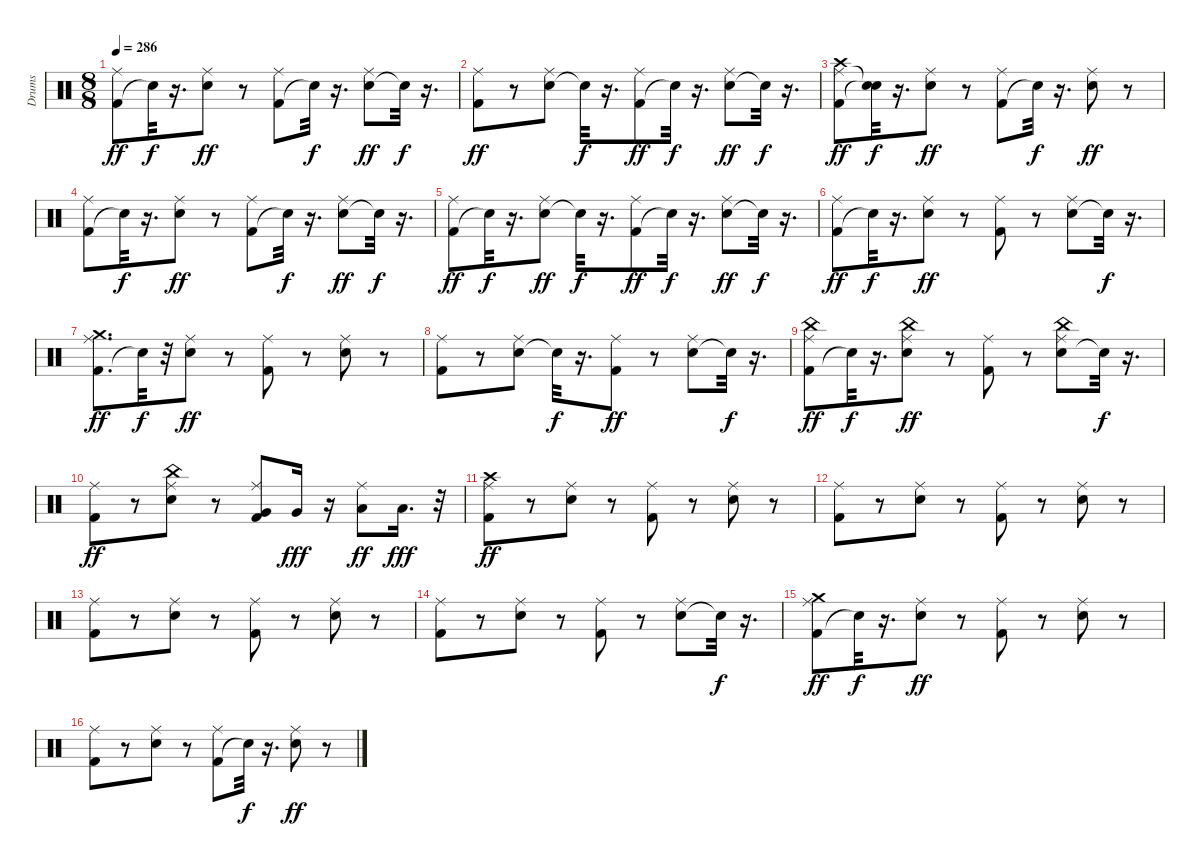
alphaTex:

\track ("Drums" "Drums") {instrument percussion}
\staff {score}
\articulation defaults
\ts (8 8)
\tempo 286
\clef neutral
\ks c
("Kick (hit) 2" "Ride (middle)").8{dy ff} "Snare (hit)"{t}.32{dy f} r.16{d} ("Snare (hit) 2" "Ride (middle)").8{dy ff} r.8 ("Kick (hit) 2" "Ride (middle)").8 "Snare (hit)"{t}.32{dy f} r.16{d} ("Snare (hit) 2" "Ride (middle)").8{dy ff} "Snare (hit)"{t}.32{dy f} r.16{d} |
("Kick (hit) 2" "Ride (middle)").8{dy ff} r.8 ("Snare (hit) 2" "Ride (middle)").8 "Snare (hit)"{t}.32{dy f} r.16{d} ("Kick (hit) 2" "Ride (middle)").8{dy ff} "Snare (hit)"{t}.32{dy f} r.16{d} ("Snare (hit) 2" "Ride (middle)").8{dy ff} "Snare (hit)"{t}.32{dy f} r.16{d} |
("Kick (hit) 2" "Ride (middle)" "Crash high (hit)").8{dy ff} ("Snare (hit)"{t} "Snare (hit)"{t}).32{dy f} r.16{d} ("Snare (hit) 2" "Ride (middle)").8{dy ff} r.8 ("Kick (hit) 2" "Ride (middle)").8 "Snare (hit)"{t}.32{dy f} r.16{d} ("Snare (hit) 2" "Ride (middle)").8{dy ff} r.8 |
("Kick (hit) 2" "Ride (middle)").8 "Snare (hit)"{t}.32{dy f} r.16{d} ("Snare (hit) 2" "Ride (middle)").8{dy ff} r.8 ("Kick (hit) 2" "Ride (middle)").8 "Snare (hit)"{t}.32{dy f} r.16{d} ("Snare (hit) 2" "Ride (middle)").8{dy ff} "Snare (hit)"{t}.32{dy f} r.16{d} |
("Kick (hit) 2" "Ride (middle)").8{dy ff} "Snare (hit)"{t}.32{dy f} r.16{d} ("Snare (hit) 2" "Ride (middle)").8{dy ff} "Snare (hit)"{t}.32{dy f} r.16{d} ("Kick (hit) 2" "Ride (middle)").8{dy ff} "Snare (hit)"{t}.32{dy f} r.16{d} ("Snare (hit) 2" "Ride (middle)").8{dy ff} "Snare (hit)"{t}.32{dy f} r.16{d} |
("Kick (hit) 2" "Ride (middle)").8{dy ff} "Snare (hit)"{t}.32{dy f} r.16{d} ("Snare (hit) 2" "Ride (middle)").8{dy ff} r.8 ("Kick (hit) 2" "Ride (middle)").8 r.8 ("Snare (hit) 2" "Ride (middle)").8 "Snare (hit)"{t}.32{dy f} r.16{d} |
("Kick (hit) 2" "Ride (middle)" "Crash medium (hit)").8{d dy ff} "Snare (hit)"{t}.32{dy f} r.32 ("Snare (hit) 2" "Ride (middle)").8{dy ff} r.8 ("Kick (hit) 2" "Ride (middle)").8 r.8 ("Snare (hit) 2" "Ride (middle)").8 r.8 |
("Kick (hit) 2" "Ride (middle)").8 r.8 ("Snare (hit) 2" "Ride (middle)").8 "Snare (hit)"{t}.32{dy f} r.16{d} ("Kick (hit) 2" "Ride (middle)").8{dy ff} r.8 ("Snare (hit) 2" "Ride (middle)").8 "Snare (hit)"{t}.32{dy f} r.16{d} |
("Kick (hit) 2" "Ride (middle)" "China (hit)").8{dy ff} "Snare (hit)"{t}.32{dy f} r.16{d} ("Snare (hit) 2" "Ride (middle)" "China (hit)").8{dy ff} r.8 ("Kick (hit) 2" "Ride (middle)").8 r.8 ("Snare (hit) 2" "Ride (middle)" "China (hit)").8 "Snare (hit)"{t}.32{dy f} r.16{d} |
("Kick (hit) 2" "Ride (middle)").8{dy ff} r.8 ("Snare (hit) 2" "Ride (middle)" "China (hit)").8 r.8 ("Kick (hit) 2" "Very Low Tom (hit)" "Ride (middle)").8 "Very Low Tom (hit)".16{dy fff} r.16 ("Low Floor Tom (hit)" "Ride (middle)").8{dy ff} "Low Floor Tom (hit)".16{d dy fff} r.32 |
("Kick (hit) 2" "Ride (middle)" "Crash high (hit)").8{dy ff} r.8 ("Snare (hit) 2" "Ride (middle)").8 r.8 ("Kick (hit) 2" "Ride (middle)").8 r.8 ("Snare (hit) 2" "Ride (middle)").8 r.8 |
("Kick (hit) 2" "Ride (middle)").8 r.8 ("Snare (hit) 2" "Ride (middle)").8 r.8 ("Kick (hit) 2" "Ride (middle)").8 r.8 ("Snare (hit) 2" "Ride (middle)").8 r.8 |
("Kick (hit) 2" "Ride (middle)").8 r.8 ("Snare (hit) 2" "Ride (middle)").8 r.8 ("Kick (hit) 2" "Ride (middle)").8 r.8 ("Snare (hit) 2" "Ride (middle)").8 r.8 |
("Kick (hit) 2" "Ride (middle)").8 r.8 ("Snare (hit) 2" "Ride (middle)").8 r.8 ("Kick (hit) 2" "Ride (middle)").8 r.8 ("Snare (hit) 2" "Ride (middle)").8 "Snare (hit)"{t}.32{dy f} r.16{d} |
("Kick (hit) 2" "Ride (middle)" "Crash medium (hit)").8{dy ff} "Snare (hit)"{t}.32{dy f} r.16{d} ("Snare (hit) 2" "Ride (middle)").8{dy ff} r.8 ("Kick (hit) 2" "Ride (middle)").8 r.8 ("Snare (hit) 2" "Ride (middle)").8 r.8 |
("Kick (hit) 2" "Ride (middle)").8 r.8 ("Snare (hit) 2" "Ride (middle)").8 r.8 ("Kick (hit) 2" "Ride (middle)").8 "Snare (hit)"{t}.32{dy f} r.16{d} ("Snare (hit) 2" "Ride (middle)").8{dy ff} r.8
